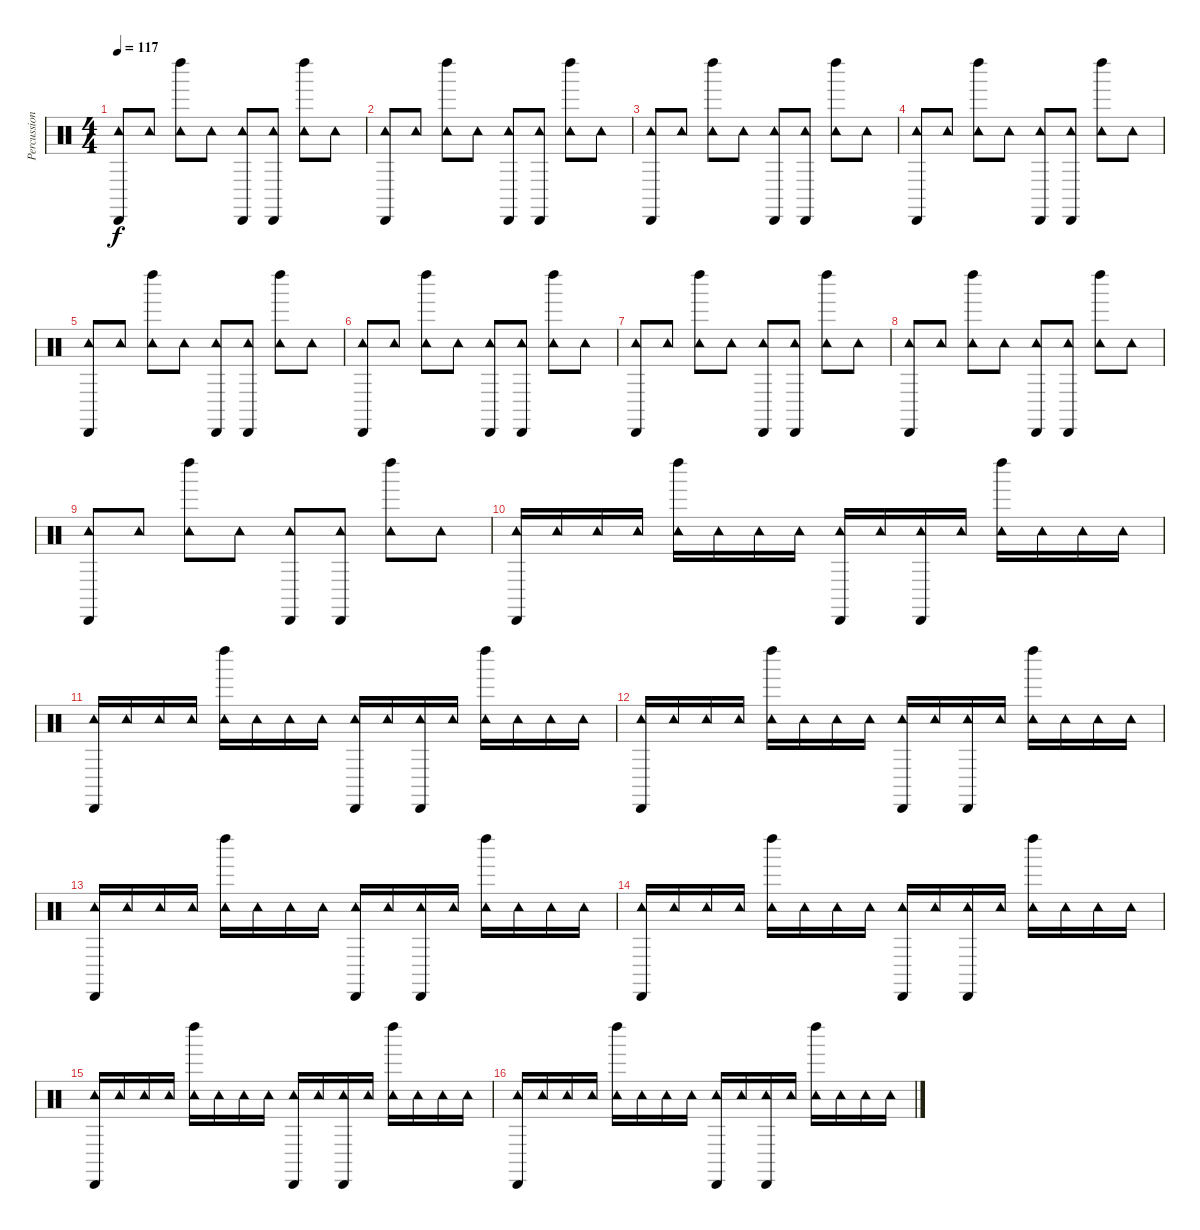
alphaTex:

\track ("Percussion" "Percussion") {instrument percussion}
\staff {score}
\articulation defaults
\ts (4 4)
\tempo 117
\clef neutral
\ks c
("Tambourine (hit)" "Cabasa (hit)").8{dy f} "Tambourine (hit)".8 ("Tambourine (hit)" "Left Maraca (hit)").8 "Tambourine (hit)".8 ("Tambourine (hit)" "Cabasa (hit)").8 ("Tambourine (hit)" "Cabasa (hit)").8 ("Tambourine (hit)" "Left Maraca (hit)").8 "Tambourine (hit)".8 |
("Tambourine (hit)" "Cabasa (hit)").8 "Tambourine (hit)".8 ("Tambourine (hit)" "Left Maraca (hit)").8 "Tambourine (hit)".8 ("Tambourine (hit)" "Cabasa (hit)").8 ("Tambourine (hit)" "Cabasa (hit)").8 ("Tambourine (hit)" "Left Maraca (hit)").8 "Tambourine (hit)".8 |
("Tambourine (hit)" "Cabasa (hit)").8 "Tambourine (hit)".8 ("Tambourine (hit)" "Left Maraca (hit)").8 "Tambourine (hit)".8 ("Tambourine (hit)" "Cabasa (hit)").8 ("Tambourine (hit)" "Cabasa (hit)").8 ("Tambourine (hit)" "Left Maraca (hit)").8 "Tambourine (hit)".8 |
("Tambourine (hit)" "Cabasa (hit)").8 "Tambourine (hit)".8 ("Tambourine (hit)" "Left Maraca (hit)").8 "Tambourine (hit)".8 ("Tambourine (hit)" "Cabasa (hit)").8 ("Tambourine (hit)" "Cabasa (hit)").8 ("Tambourine (hit)" "Left Maraca (hit)").8 "Tambourine (hit)".8 |
("Tambourine (hit)" "Cabasa (hit)").8 "Tambourine (hit)".8 ("Tambourine (hit)" "Left Maraca (hit)").8 "Tambourine (hit)".8 ("Tambourine (hit)" "Cabasa (hit)").8 ("Tambourine (hit)" "Cabasa (hit)").8 ("Tambourine (hit)" "Left Maraca (hit)").8 "Tambourine (hit)".8 |
("Tambourine (hit)" "Cabasa (hit)").8 "Tambourine (hit)".8 ("Tambourine (hit)" "Left Maraca (hit)").8 "Tambourine (hit)".8 ("Tambourine (hit)" "Cabasa (hit)").8 ("Tambourine (hit)" "Cabasa (hit)").8 ("Tambourine (hit)" "Left Maraca (hit)").8 "Tambourine (hit)".8 |
("Tambourine (hit)" "Cabasa (hit)").8 "Tambourine (hit)".8 ("Tambourine (hit)" "Left Maraca (hit)").8 "Tambourine (hit)".8 ("Tambourine (hit)" "Cabasa (hit)").8 ("Tambourine (hit)" "Cabasa (hit)").8 ("Tambourine (hit)" "Left Maraca (hit)").8 "Tambourine (hit)".8 |
("Tambourine (hit)" "Cabasa (hit)").8 "Tambourine (hit)".8 ("Tambourine (hit)" "Left Maraca (hit)").8 "Tambourine (hit)".8 ("Tambourine (hit)" "Cabasa (hit)").8 ("Tambourine (hit)" "Cabasa (hit)").8 ("Tambourine (hit)" "Left Maraca (hit)").8 "Tambourine (hit)".8 |
("Tambourine (hit)" "Cabasa (hit)").8 "Tambourine (hit)".8 ("Tambourine (hit)" "Left Maraca (hit)").8 "Tambourine (hit)".8 ("Tambourine (hit)" "Cabasa (hit)").8 ("Tambourine (hit)" "Cabasa (hit)").8 ("Tambourine (hit)" "Left Maraca (hit)").8 "Tambourine (hit)".8 |
("Tambourine (hit)" "Cabasa (hit)").16 "Tambourine (hit)".16 "Tambourine (hit)".16 "Tambourine (hit)".16 ("Tambourine (hit)" "Left Maraca (hit)").16 "Tambourine (hit)".16 "Tambourine (hit)".16 "Tambourine (hit)".16 ("Tambourine (hit)" "Cabasa (hit)").16 "Tambourine (hit)".16 ("Tambourine (hit)" "Cabasa (hit)").16 "Tambourine (hit)".16 ("Tambourine (hit)" "Left Maraca (hit)").16 "Tambourine (hit)".16 "Tambourine (hit)".16 "Tambourine (hit)".16 |
("Tambourine (hit)" "Cabasa (hit)").16 "Tambourine (hit)".16 "Tambourine (hit)".16 "Tambourine (hit)".16 ("Tambourine (hit)" "Left Maraca (hit)").16 "Tambourine (hit)".16 "Tambourine (hit)".16 "Tambourine (hit)".16 ("Tambourine (hit)" "Cabasa (hit)").16 "Tambourine (hit)".16 ("Tambourine (hit)" "Cabasa (hit)").16 "Tambourine (hit)".16 ("Tambourine (hit)" "Left Maraca (hit)").16 "Tambourine (hit)".16 "Tambourine (hit)".16 "Tambourine (hit)".16 |
("Tambourine (hit)" "Cabasa (hit)").16 "Tambourine (hit)".16 "Tambourine (hit)".16 "Tambourine (hit)".16 ("Tambourine (hit)" "Left Maraca (hit)").16 "Tambourine (hit)".16 "Tambourine (hit)".16 "Tambourine (hit)".16 ("Tambourine (hit)" "Cabasa (hit)").16 "Tambourine (hit)".16 ("Tambourine (hit)" "Cabasa (hit)").16 "Tambourine (hit)".16 ("Tambourine (hit)" "Left Maraca (hit)").16 "Tambourine (hit)".16 "Tambourine (hit)".16 "Tambourine (hit)".16 |
("Tambourine (hit)" "Cabasa (hit)").16 "Tambourine (hit)".16 "Tambourine (hit)".16 "Tambourine (hit)".16 ("Tambourine (hit)" "Left Maraca (hit)").16 "Tambourine (hit)".16 "Tambourine (hit)".16 "Tambourine (hit)".16 ("Tambourine (hit)" "Cabasa (hit)").16 "Tambourine (hit)".16 ("Tambourine (hit)" "Cabasa (hit)").16 "Tambourine (hit)".16 ("Tambourine (hit)" "Left Maraca (hit)").16 "Tambourine (hit)".16 "Tambourine (hit)".16 "Tambourine (hit)".16 |
("Tambourine (hit)" "Cabasa (hit)").16 "Tambourine (hit)".16 "Tambourine (hit)".16 "Tambourine (hit)".16 ("Tambourine (hit)" "Left Maraca (hit)").16 "Tambourine (hit)".16 "Tambourine (hit)".16 "Tambourine (hit)".16 ("Tambourine (hit)" "Cabasa (hit)").16 "Tambourine (hit)".16 ("Tambourine (hit)" "Cabasa (hit)").16 "Tambourine (hit)".16 ("Tambourine (hit)" "Left Maraca (hit)").16 "Tambourine (hit)".16 "Tambourine (hit)".16 "Tambourine (hit)".16 |
("Tambourine (hit)" "Cabasa (hit)").16 "Tambourine (hit)".16 "Tambourine (hit)".16 "Tambourine (hit)".16 ("Tambourine (hit)" "Left Maraca (hit)").16 "Tambourine (hit)".16 "Tambourine (hit)".16 "Tambourine (hit)".16 ("Tambourine (hit)" "Cabasa (hit)").16 "Tambourine (hit)".16 ("Tambourine (hit)" "Cabasa (hit)").16 "Tambourine (hit)".16 ("Tambourine (hit)" "Left Maraca (hit)").16 "Tambourine (hit)".16 "Tambourine (hit)".16 "Tambourine (hit)".16 |
("Tambourine (hit)" "Cabasa (hit)").16 "Tambourine (hit)".16 "Tambourine (hit)".16 "Tambourine (hit)".16 ("Tambourine (hit)" "Left Maraca (hit)").16 "Tambourine (hit)".16 "Tambourine (hit)".16 "Tambourine (hit)".16 ("Tambourine (hit)" "Cabasa (hit)").16 "Tambourine (hit)".16 ("Tambourine (hit)" "Cabasa (hit)").16 "Tambourine (hit)".16 ("Tambourine (hit)" "Left Maraca (hit)").16 "Tambourine (hit)".16 "Tambourine (hit)".16 "Tambourine (hit)".16
